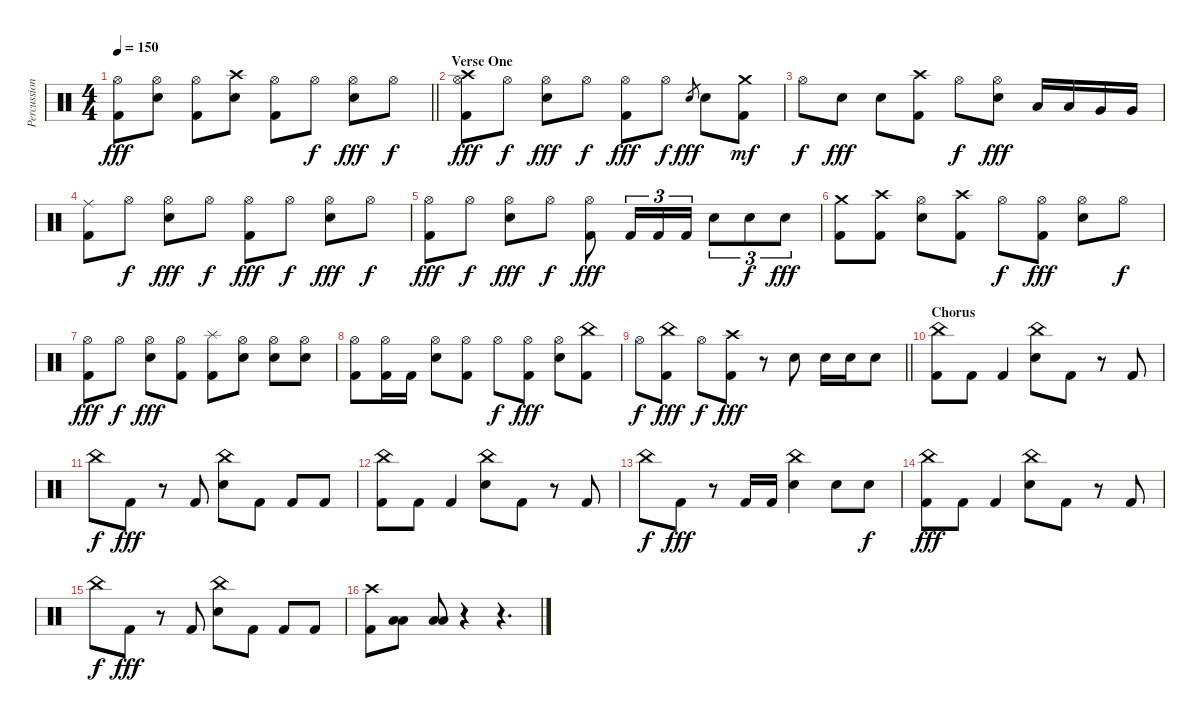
\track ("Percussion" "Percussion") {instrument percussion}
\staff {score}
\articulation defaults
\ts (4 4)
\tempo 150
\clef neutral
\barLineRight lightlight
\ks c
("Kick (hit) 2" "Hi-Hat (open)").8{dy fff} ("Hi-Hat (open)" "Snare (hit) 2").8 ("Hi-Hat (open)" "Kick (hit) 2").8 ("Crash high (hit)" "Snare (hit) 2").8 ("Kick (hit) 2" "Hi-Hat (open)").8 "Hi-Hat (open)".8{dy f} ("Snare (hit) 2" "Hi-Hat (open)").8{dy fff} "Hi-Hat (open)".8{dy f} |
\section ("" "Verse One")
("Kick (hit) 2" "Hi-Hat (open)" "Crash high (hit)").8{dy fff} "Hi-Hat (open)".8{dy f} ("Hi-Hat (open)" "Snare (hit) 2").8{dy fff} "Hi-Hat (open)".8{dy f} ("Hi-Hat (open)" "Kick (hit) 2").8{dy fff} "Hi-Hat (open)".8{dy f} "Snare (hit) 2".8{gr dy fff} "Snare (hit) 2".8 ("Kick (hit) 2" "Crash medium (hit)").8{dy mf} |
"Hi-Hat (open)".8{dy f} "Snare (hit) 2".8{dy fff} "Snare (hit) 2".8 ("Kick (hit) 2" "Crash high (hit)").8 "Hi-Hat (open)".8{dy f} ("Hi-Hat (open)" "Snare (hit) 2").8{dy fff} "Low Tom (hit)".16 "Low Tom (hit)".16 "Very Low Tom (hit)".16 "Very Low Tom (hit)".16 |
("Kick (hit) 2" "Ride (middle)").8 "Hi-Hat (open)".8{dy f} ("Hi-Hat (open)" "Snare (hit) 2").8{dy fff} "Hi-Hat (open)".8{dy f} ("Hi-Hat (open)" "Kick (hit) 2").8{dy fff} "Hi-Hat (open)".8{dy f} ("Hi-Hat (open)" "Snare (hit) 2").8{dy fff} "Hi-Hat (open)".8{dy f} |
("Hi-Hat (open)" "Kick (hit) 2").8{dy fff} "Hi-Hat (open)".8{dy f} ("Snare (hit) 2" "Hi-Hat (open)").8{dy fff} "Hi-Hat (open)".8{dy f} ("Hi-Hat (open)" "Kick (hit) 2").8{dy fff} "Kick (hit) 2".16{tu (3 2)} "Kick (hit) 2".16{tu (3 2)} "Kick (hit) 2".16{tu (3 2)} "Snare (hit) 2".8{tu (3 2)} "Snare (hit) 2".8{tu (3 2) dy f} "Snare (hit) 2".8{tu (3 2) dy fff} |
("Kick (hit) 2" "Crash medium (hit)").8 ("Kick (hit) 2" "Crash high (hit)").8 ("Hi-Hat (open)" "Snare (hit) 2").8 ("Crash high (hit)" "Kick (hit) 2").8 "Hi-Hat (open)".8{dy f} ("Hi-Hat (open)" "Kick (hit) 2").8{dy fff} ("Hi-Hat (open)" "Snare (hit) 2").8 "Hi-Hat (open)".8{dy f} |
("Hi-Hat (open)" "Kick (hit) 2").8{dy fff} "Hi-Hat (open)".8{dy f} ("Snare (hit) 2" "Hi-Hat (open)").8{dy fff} ("Hi-Hat (open)" "Kick (hit) 2").8 ("Splash (hit)" "Kick (hit) 2").8 ("Hi-Hat (open)" "Snare (hit) 2").8 ("Hi-Hat (open)" "Snare (hit) 2").8 ("Hi-Hat (open)" "Snare (hit) 2").8 |
("Hi-Hat (open)" "Kick (hit) 2").8 ("Hi-Hat (open)" "Kick (hit) 2").16 "Kick (hit) 2".16 ("Hi-Hat (open)" "Snare (hit) 2").8 ("Hi-Hat (open)" "Kick (hit) 2").8 "Hi-Hat (open)".8{dy f} ("Hi-Hat (open)" "Kick (hit) 2").8{dy fff} ("Hi-Hat (open)" "Snare (hit) 2").8 ("China (hit)" "Kick (hit) 2").8 |
\barLineRight lightlight "Hi-Hat (open)".8{dy f}
("China (hit)" "Kick (hit) 2").8{dy fff} "Hi-Hat (open)".8{dy f} ("Kick (hit) 2" "Crash high (hit)").8{dy fff} r.8 "Snare (hit) 2".8 "Snare (hit) 2".16 "Snare (hit) 2".16 "Snare (hit) 2".8 |
\section ("" "Chorus")
("China (hit)" "Kick (hit) 2").8 "Kick (hit) 2".8 "Kick (hit) 2".4 ("China (hit)" "Snare (hit) 2").8 "Kick (hit) 2".8 r.8 "Kick (hit) 2".8 |
"China (hit)".8{dy f} "Kick (hit) 2".8{dy fff} r.8 "Kick (hit) 2".8 ("China (hit)" "Snare (hit) 2").8 "Kick (hit) 2".8 "Kick (hit) 2".8 "Kick (hit) 2".8 |
("China (hit)" "Kick (hit) 2").8 "Kick (hit) 2".8 "Kick (hit) 2".4 ("China (hit)" "Snare (hit) 2").8 "Kick (hit) 2".8 r.8 "Kick (hit) 2".8 |
"China (hit)".8{dy f} "Kick (hit) 2".8{dy fff} r.8 "Kick (hit) 2".16 "Kick (hit) 2".16 ("Snare (hit) 2" "China (hit)").4 "Snare (hit) 2".8 "Snare (hit) 2".8{dy f} |
("China (hit)" "Kick (hit) 2").8{dy fff} "Kick (hit) 2".8 "Kick (hit) 2".4 ("China (hit)" "Snare (hit) 2").8 "Kick (hit) 2".8 r.8 "Kick (hit) 2".8 |
"China (hit)".8{dy f} "Kick (hit) 2".8{dy fff} r.8 "Kick (hit) 2".8 ("China (hit)" "Snare (hit) 2").8 "Kick (hit) 2".8 "Kick (hit) 2".8 "Kick (hit) 2".8 |
("Kick (hit) 2" "Crash high (hit)").8 ("Low Tom (hit)" "Low Floor Tom (hit)").8 ("Low Tom (hit)" "Low Floor Tom (hit)").8 r.4 r.4{d}
